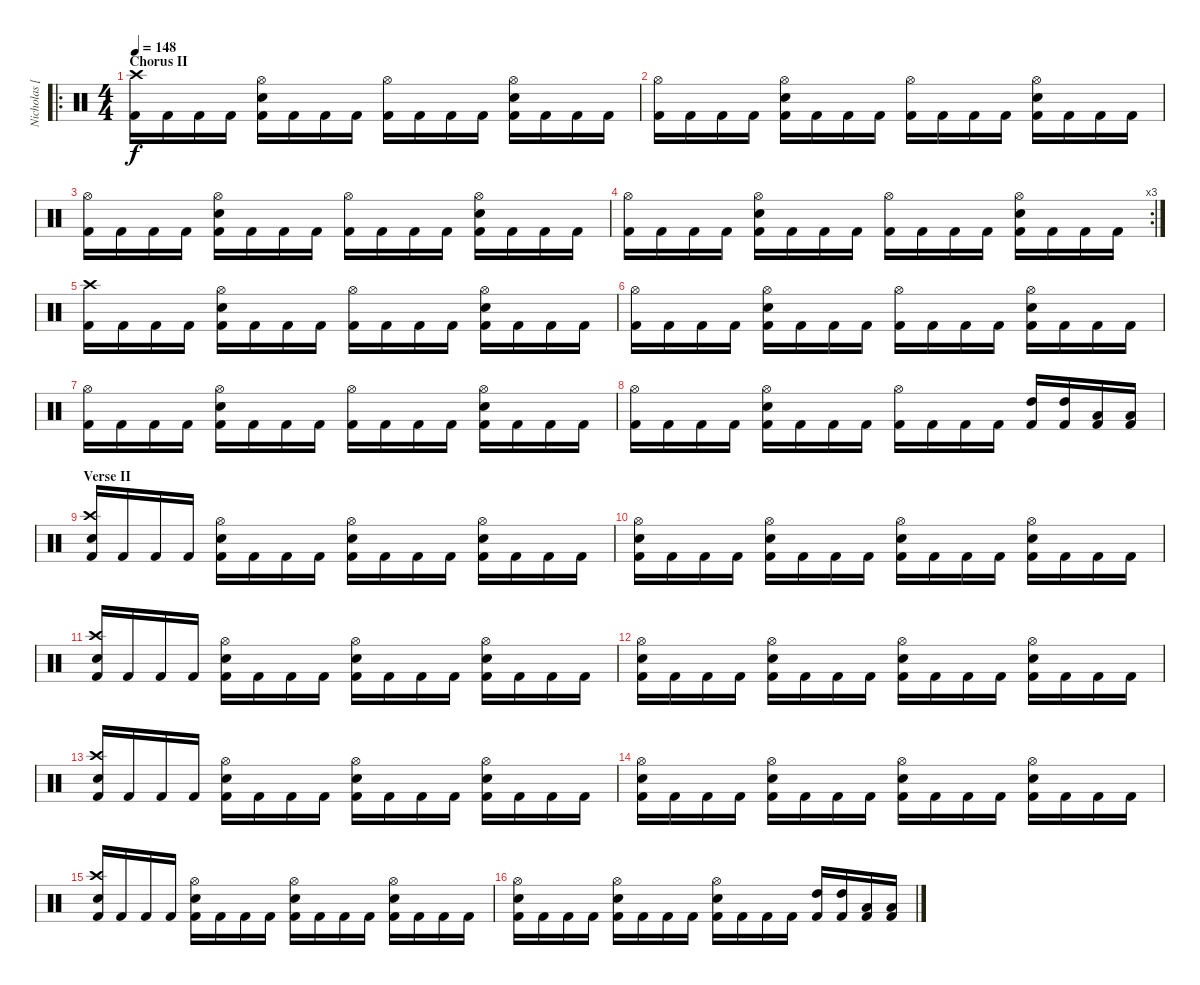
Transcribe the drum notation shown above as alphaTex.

\track ("Nicholas [Percussion]" "Nicholas [") {instrument percussion}
\staff {score}
\articulation defaults
\ro
\ts (4 4)
\section ("" "Chorus II")
\tempo 148
\clef neutral
\ks c
("Kick (hit) 2" "Crash high (hit)").16{dy f} "Kick (hit) 2".16 "Kick (hit) 2".16 "Kick (hit) 2".16 ("Kick (hit) 2" "Snare (hit) 2" "Hi-Hat (open)").16 "Kick (hit) 2".16 "Kick (hit) 2".16 "Kick (hit) 2".16 ("Kick (hit) 2" "Hi-Hat (open)").16 "Kick (hit) 2".16 "Kick (hit) 2".16 "Kick (hit) 2".16 ("Kick (hit) 2" "Snare (hit) 2" "Hi-Hat (open)").16 "Kick (hit) 2".16 "Kick (hit) 2".16 "Kick (hit) 2".16 |
("Kick (hit) 2" "Hi-Hat (open)").16 "Kick (hit) 2".16 "Kick (hit) 2".16 "Kick (hit) 2".16 ("Kick (hit) 2" "Snare (hit) 2" "Hi-Hat (open)").16 "Kick (hit) 2".16 "Kick (hit) 2".16 "Kick (hit) 2".16 ("Kick (hit) 2" "Hi-Hat (open)").16 "Kick (hit) 2".16 "Kick (hit) 2".16 "Kick (hit) 2".16 ("Kick (hit) 2" "Snare (hit) 2" "Hi-Hat (open)").16 "Kick (hit) 2".16 "Kick (hit) 2".16 "Kick (hit) 2".16 |
("Kick (hit) 2" "Hi-Hat (open)").16 "Kick (hit) 2".16 "Kick (hit) 2".16 "Kick (hit) 2".16 ("Kick (hit) 2" "Snare (hit) 2" "Hi-Hat (open)").16 "Kick (hit) 2".16 "Kick (hit) 2".16 "Kick (hit) 2".16 ("Kick (hit) 2" "Hi-Hat (open)").16 "Kick (hit) 2".16 "Kick (hit) 2".16 "Kick (hit) 2".16 ("Kick (hit) 2" "Snare (hit) 2" "Hi-Hat (open)").16 "Kick (hit) 2".16 "Kick (hit) 2".16 "Kick (hit) 2".16 |
\rc 3
("Kick (hit) 2" "Hi-Hat (open)").16 "Kick (hit) 2".16 "Kick (hit) 2".16 "Kick (hit) 2".16 ("Kick (hit) 2" "Snare (hit) 2" "Hi-Hat (open)").16 "Kick (hit) 2".16 "Kick (hit) 2".16 "Kick (hit) 2".16 ("Kick (hit) 2" "Hi-Hat (open)").16 "Kick (hit) 2".16 "Kick (hit) 2".16 "Kick (hit) 2".16 ("Kick (hit) 2" "Snare (hit) 2" "Hi-Hat (open)").16 "Kick (hit) 2".16 "Kick (hit) 2".16 "Kick (hit) 2".16 |
("Kick (hit) 2" "Crash high (hit)").16 "Kick (hit) 2".16 "Kick (hit) 2".16 "Kick (hit) 2".16 ("Kick (hit) 2" "Snare (hit) 2" "Hi-Hat (open)").16 "Kick (hit) 2".16 "Kick (hit) 2".16 "Kick (hit) 2".16 ("Kick (hit) 2" "Hi-Hat (open)").16 "Kick (hit) 2".16 "Kick (hit) 2".16 "Kick (hit) 2".16 ("Kick (hit) 2" "Snare (hit) 2" "Hi-Hat (open)").16 "Kick (hit) 2".16 "Kick (hit) 2".16 "Kick (hit) 2".16 |
("Kick (hit) 2" "Hi-Hat (open)").16 "Kick (hit) 2".16 "Kick (hit) 2".16 "Kick (hit) 2".16 ("Kick (hit) 2" "Snare (hit) 2" "Hi-Hat (open)").16 "Kick (hit) 2".16 "Kick (hit) 2".16 "Kick (hit) 2".16 ("Kick (hit) 2" "Hi-Hat (open)").16 "Kick (hit) 2".16 "Kick (hit) 2".16 "Kick (hit) 2".16 ("Kick (hit) 2" "Snare (hit) 2" "Hi-Hat (open)").16 "Kick (hit) 2".16 "Kick (hit) 2".16 "Kick (hit) 2".16 |
("Kick (hit) 2" "Hi-Hat (open)").16 "Kick (hit) 2".16 "Kick (hit) 2".16 "Kick (hit) 2".16 ("Kick (hit) 2" "Snare (hit) 2" "Hi-Hat (open)").16 "Kick (hit) 2".16 "Kick (hit) 2".16 "Kick (hit) 2".16 ("Kick (hit) 2" "Hi-Hat (open)").16 "Kick (hit) 2".16 "Kick (hit) 2".16 "Kick (hit) 2".16 ("Kick (hit) 2" "Snare (hit) 2" "Hi-Hat (open)").16 "Kick (hit) 2".16 "Kick (hit) 2".16 "Kick (hit) 2".16 |
("Kick (hit) 2" "Hi-Hat (open)").16 "Kick (hit) 2".16 "Kick (hit) 2".16 "Kick (hit) 2".16 ("Kick (hit) 2" "Snare (hit) 2" "Hi-Hat (open)").16 "Kick (hit) 2".16 "Kick (hit) 2".16 "Kick (hit) 2".16 ("Kick (hit) 2" "Hi-Hat (open)").16 "Kick (hit) 2".16 "Kick (hit) 2".16 "Kick (hit) 2".16 ("Kick (hit) 2" "High Tom (hit)").16 ("Kick (hit) 2" "High Tom (hit)").16 ("Kick (hit) 2" "Low Tom (hit)").16 ("Kick (hit) 2" "Low Tom (hit)").16 |
\section ("" "Verse II")
("Kick (hit) 2" "Snare (hit) 2" "Crash high (hit)").16 "Kick (hit) 2".16 "Kick (hit) 2".16 "Kick (hit) 2".16 ("Kick (hit) 2" "Snare (hit) 2" "Hi-Hat (open)").16 "Kick (hit) 2".16 "Kick (hit) 2".16 "Kick (hit) 2".16 ("Kick (hit) 2" "Snare (hit) 2" "Hi-Hat (open)").16 "Kick (hit) 2".16 "Kick (hit) 2".16 "Kick (hit) 2".16 ("Kick (hit) 2" "Snare (hit) 2" "Hi-Hat (open)").16 "Kick (hit) 2".16 "Kick (hit) 2".16 "Kick (hit) 2".16 |
("Kick (hit) 2" "Snare (hit) 2" "Hi-Hat (open)").16 "Kick (hit) 2".16 "Kick (hit) 2".16 "Kick (hit) 2".16 ("Kick (hit) 2" "Snare (hit) 2" "Hi-Hat (open)").16 "Kick (hit) 2".16 "Kick (hit) 2".16 "Kick (hit) 2".16 ("Kick (hit) 2" "Snare (hit) 2" "Hi-Hat (open)").16 "Kick (hit) 2".16 "Kick (hit) 2".16 "Kick (hit) 2".16 ("Kick (hit) 2" "Snare (hit) 2" "Hi-Hat (open)").16 "Kick (hit) 2".16 "Kick (hit) 2".16 "Kick (hit) 2".16 |
("Kick (hit) 2" "Snare (hit) 2" "Crash high (hit)").16 "Kick (hit) 2".16 "Kick (hit) 2".16 "Kick (hit) 2".16 ("Kick (hit) 2" "Snare (hit) 2" "Hi-Hat (open)").16 "Kick (hit) 2".16 "Kick (hit) 2".16 "Kick (hit) 2".16 ("Kick (hit) 2" "Snare (hit) 2" "Hi-Hat (open)").16 "Kick (hit) 2".16 "Kick (hit) 2".16 "Kick (hit) 2".16 ("Kick (hit) 2" "Snare (hit) 2" "Hi-Hat (open)").16 "Kick (hit) 2".16 "Kick (hit) 2".16 "Kick (hit) 2".16 |
("Kick (hit) 2" "Snare (hit) 2" "Hi-Hat (open)").16 "Kick (hit) 2".16 "Kick (hit) 2".16 "Kick (hit) 2".16 ("Kick (hit) 2" "Snare (hit) 2" "Hi-Hat (open)").16 "Kick (hit) 2".16 "Kick (hit) 2".16 "Kick (hit) 2".16 ("Kick (hit) 2" "Snare (hit) 2" "Hi-Hat (open)").16 "Kick (hit) 2".16 "Kick (hit) 2".16 "Kick (hit) 2".16 ("Kick (hit) 2" "Snare (hit) 2" "Hi-Hat (open)").16 "Kick (hit) 2".16 "Kick (hit) 2".16 "Kick (hit) 2".16 |
("Kick (hit) 2" "Snare (hit) 2" "Crash high (hit)").16 "Kick (hit) 2".16 "Kick (hit) 2".16 "Kick (hit) 2".16 ("Kick (hit) 2" "Snare (hit) 2" "Hi-Hat (open)").16 "Kick (hit) 2".16 "Kick (hit) 2".16 "Kick (hit) 2".16 ("Kick (hit) 2" "Snare (hit) 2" "Hi-Hat (open)").16 "Kick (hit) 2".16 "Kick (hit) 2".16 "Kick (hit) 2".16 ("Kick (hit) 2" "Snare (hit) 2" "Hi-Hat (open)").16 "Kick (hit) 2".16 "Kick (hit) 2".16 "Kick (hit) 2".16 |
("Kick (hit) 2" "Snare (hit) 2" "Hi-Hat (open)").16 "Kick (hit) 2".16 "Kick (hit) 2".16 "Kick (hit) 2".16 ("Kick (hit) 2" "Snare (hit) 2" "Hi-Hat (open)").16 "Kick (hit) 2".16 "Kick (hit) 2".16 "Kick (hit) 2".16 ("Kick (hit) 2" "Snare (hit) 2" "Hi-Hat (open)").16 "Kick (hit) 2".16 "Kick (hit) 2".16 "Kick (hit) 2".16 ("Kick (hit) 2" "Snare (hit) 2" "Hi-Hat (open)").16 "Kick (hit) 2".16 "Kick (hit) 2".16 "Kick (hit) 2".16 |
("Kick (hit) 2" "Snare (hit) 2" "Crash high (hit)").16 "Kick (hit) 2".16 "Kick (hit) 2".16 "Kick (hit) 2".16 ("Kick (hit) 2" "Snare (hit) 2" "Hi-Hat (open)").16 "Kick (hit) 2".16 "Kick (hit) 2".16 "Kick (hit) 2".16 ("Kick (hit) 2" "Snare (hit) 2" "Hi-Hat (open)").16 "Kick (hit) 2".16 "Kick (hit) 2".16 "Kick (hit) 2".16 ("Kick (hit) 2" "Snare (hit) 2" "Hi-Hat (open)").16 "Kick (hit) 2".16 "Kick (hit) 2".16 "Kick (hit) 2".16 |
("Kick (hit) 2" "Snare (hit) 2" "Hi-Hat (open)").16 "Kick (hit) 2".16 "Kick (hit) 2".16 "Kick (hit) 2".16 ("Kick (hit) 2" "Snare (hit) 2" "Hi-Hat (open)").16 "Kick (hit) 2".16 "Kick (hit) 2".16 "Kick (hit) 2".16 ("Kick (hit) 2" "Snare (hit) 2" "Hi-Hat (open)").16 "Kick (hit) 2".16 "Kick (hit) 2".16 "Kick (hit) 2".16 ("Kick (hit) 2" "High Tom (hit)").16 ("Kick (hit) 2" "High Tom (hit)").16 ("Kick (hit) 2" "Low Tom (hit)").16 ("Kick (hit) 2" "Low Tom (hit)").16
